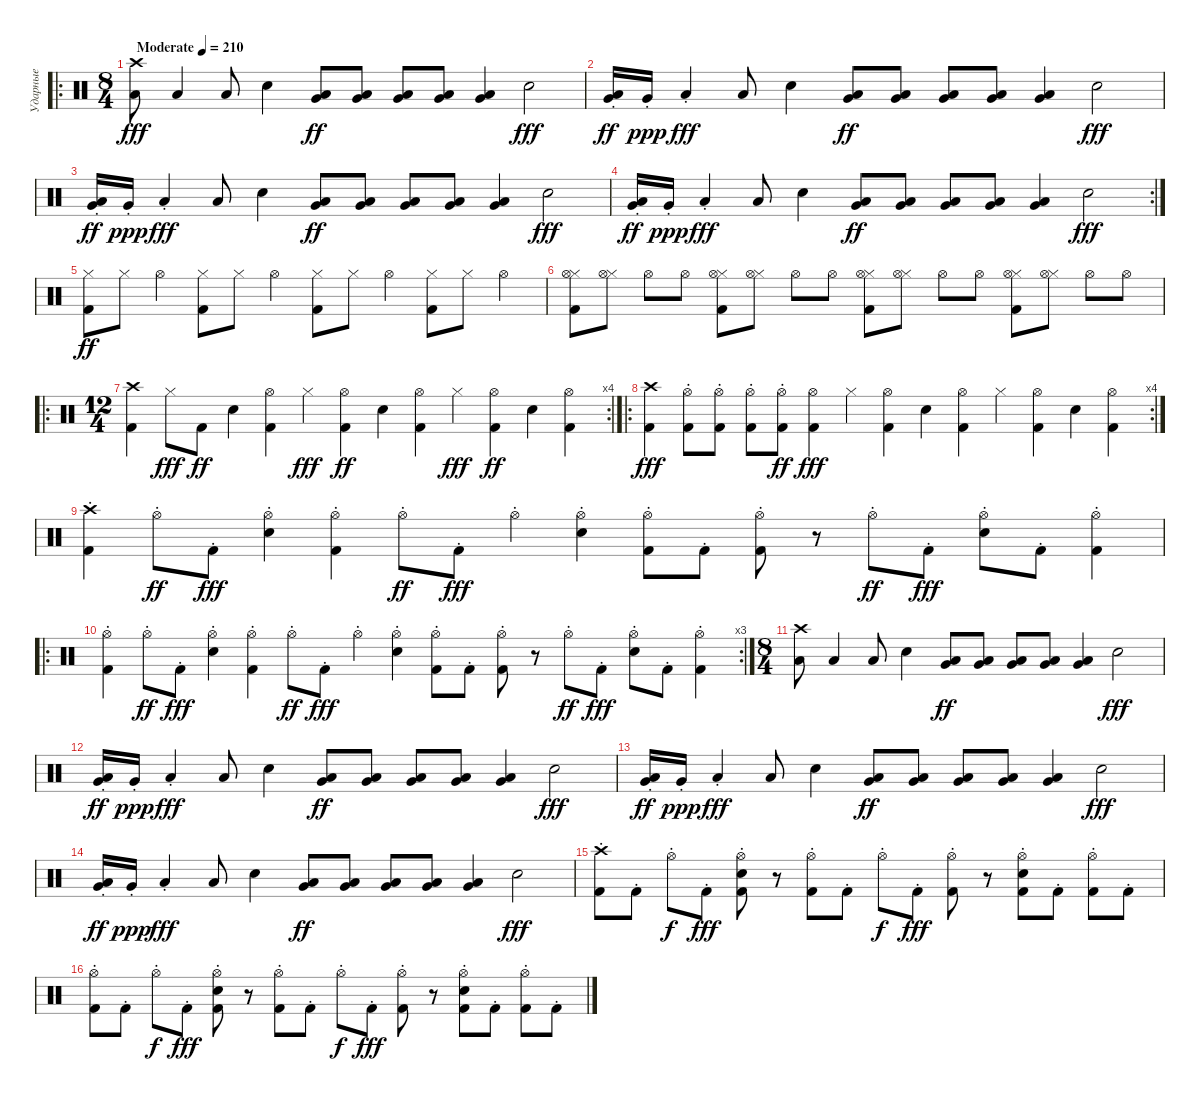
\track ("Ударные" "Ударные") {instrument percussion}
\staff {score}
\articulation defaults
\ro
\ts (8 4)
\tempo (210 "Moderate")
\clef neutral
\ks c
("Crash high (hit)" "Low Floor Tom (hit)").8{dy fff} "Low Floor Tom (hit)".4 "Low Floor Tom (hit)".8 "Electric Snare (hit)".4 ("Low Floor Tom (hit)" "Very Low Tom (hit)").8{bd 120 dy ff} ("Low Floor Tom (hit)" "Very Low Tom (hit)").8{bd 120} ("Low Floor Tom (hit)" "Very Low Tom (hit)").8{bd 120} ("Low Floor Tom (hit)" "Very Low Tom (hit)").8{bd 120} ("Low Floor Tom (hit)" "Very Low Tom (hit)").4{bd 120} "Electric Snare (hit)".2{dy fff} |
("Low Floor Tom (hit)"{st} "Very Low Tom (hit)"{st}).16{bd 120 dy ff} "Very Low Tom (hit)"{st}.16{dy ppp} "Low Floor Tom (hit)"{st}.4{dy fff} "Low Floor Tom (hit)".8 "Electric Snare (hit)".4 ("Low Floor Tom (hit)" "Very Low Tom (hit)").8{bd 120 dy ff} ("Low Floor Tom (hit)" "Very Low Tom (hit)").8{bd 120} ("Low Floor Tom (hit)" "Very Low Tom (hit)").8{bd 120} ("Low Floor Tom (hit)" "Very Low Tom (hit)").8{bd 120} ("Low Floor Tom (hit)" "Very Low Tom (hit)").4{bd 120} "Electric Snare (hit)".2{dy fff} |
("Low Floor Tom (hit)"{st} "Very Low Tom (hit)"{st}).16{bd 120 dy ff} "Very Low Tom (hit)"{st}.16{dy ppp} "Low Floor Tom (hit)"{st}.4{dy fff} "Low Floor Tom (hit)".8 "Electric Snare (hit)".4 ("Low Floor Tom (hit)" "Very Low Tom (hit)").8{bd 120 dy ff} ("Low Floor Tom (hit)" "Very Low Tom (hit)").8{bd 120} ("Low Floor Tom (hit)" "Very Low Tom (hit)").8{bd 120} ("Low Floor Tom (hit)" "Very Low Tom (hit)").8{bd 120} ("Low Floor Tom (hit)" "Very Low Tom (hit)").4{bd 120} "Electric Snare (hit)".2{dy fff} |
\rc 2
("Low Floor Tom (hit)"{st} "Very Low Tom (hit)"{st}).16{bd 120 dy ff} "Very Low Tom (hit)"{st}.16{dy ppp} "Low Floor Tom (hit)"{st}.4{dy fff} "Low Floor Tom (hit)".8 "Electric Snare (hit)".4 ("Low Floor Tom (hit)" "Very Low Tom (hit)").8{bd 120 dy ff} ("Low Floor Tom (hit)" "Very Low Tom (hit)").8{bd 120} ("Low Floor Tom (hit)" "Very Low Tom (hit)").8{bd 120} ("Low Floor Tom (hit)" "Very Low Tom (hit)").8{bd 120} ("Low Floor Tom (hit)" "Very Low Tom (hit)").4{bd 120} "Electric Snare (hit)".2{dy fff} |
("Hi-Hat (closed)" "Kick (hit) 2").8{dy ff} "Hi-Hat (closed)".8 "Hi-Hat (open)".4 ("Hi-Hat (closed)" "Kick (hit) 2").8 "Hi-Hat (closed)".8 "Hi-Hat (open)".4 ("Hi-Hat (closed)" "Kick (hit) 2").8 "Hi-Hat (closed)".8 "Hi-Hat (open)".4 ("Hi-Hat (closed)" "Kick (hit) 2").8 "Hi-Hat (closed)".8 "Hi-Hat (open)".4 |
("Hi-Hat (closed)" "Kick (hit) 2" "Hi-Hat (open)").8 ("Hi-Hat (closed)" "Hi-Hat (open)").8 "Hi-Hat (open)".8 "Hi-Hat (open)".8 ("Hi-Hat (closed)" "Kick (hit) 2" "Hi-Hat (open)").8 ("Hi-Hat (closed)" "Hi-Hat (open)").8 "Hi-Hat (open)".8 "Hi-Hat (open)".8 ("Hi-Hat (closed)" "Kick (hit) 2" "Hi-Hat (open)").8 ("Hi-Hat (closed)" "Hi-Hat (open)").8 "Hi-Hat (open)".8 "Hi-Hat (open)".8 ("Hi-Hat (closed)" "Kick (hit) 2" "Hi-Hat (open)").8 ("Hi-Hat (closed)" "Hi-Hat (open)").8 "Hi-Hat (open)".8 "Hi-Hat (open)".8 |
\ro
\rc 4
\ts (12 4)
("Crash high (hit)" "Kick (hit) 2").4 "Hi-Hat (closed)".8{dy fff} "Kick (hit) 2".8{dy ff} "Electric Snare (hit)".4 ("Hi-Hat (open)" "Kick (hit) 2").4 "Hi-Hat (closed)".4{dy fff} ("Hi-Hat (open)" "Kick (hit) 2").4{dy ff} "Electric Snare (hit)".4 ("Hi-Hat (open)" "Kick (hit) 2").4 "Hi-Hat (closed)".4{dy fff} ("Hi-Hat (open)" "Kick (hit) 2").4{dy ff} "Electric Snare (hit)".4 ("Hi-Hat (open)" "Kick (hit) 2").4 |
\ro
\rc 4
("Crash high (hit)" "Kick (hit) 2").4{dy fff} ("Hi-Hat (open)"{st} "Kick (hit) 2"{st}).8 ("Hi-Hat (open)"{st} "Kick (hit) 2"{st}).8 ("Hi-Hat (open)"{st} "Kick (hit) 2"{st}).8 ("Kick (hit) 2"{st} "Hi-Hat (open)"{st}).8{dy ff} ("Hi-Hat (open)" "Kick (hit) 2").4{dy fff} "Hi-Hat (closed)".4 ("Hi-Hat (open)" "Kick (hit) 2").4 "Electric Snare (hit)".4 ("Hi-Hat (open)" "Kick (hit) 2").4 "Hi-Hat (closed)".4 ("Hi-Hat (open)" "Kick (hit) 2").4 "Electric Snare (hit)".4 ("Hi-Hat (open)" "Kick (hit) 2").4 |
("Crash high (hit)"{st} "Kick (hit) 2"{st}).4 "Hi-Hat (open)"{st}.8{dy ff} "Kick (hit) 2"{st}.8{dy fff} ("Hi-Hat (open)"{st} "Electric Snare (hit)"{st}).4 ("Hi-Hat (open)"{st} "Kick (hit) 2"{st}).4 "Hi-Hat (open)"{st}.8{dy ff} "Kick (hit) 2"{st}.8{dy fff} "Hi-Hat (open)"{st}.4 ("Hi-Hat (open)"{st} "Electric Snare (hit)"{st}).4 ("Hi-Hat (open)"{st} "Kick (hit) 2"{st}).8 "Kick (hit) 2"{st}.8 ("Hi-Hat (open)"{st} "Kick (hit) 2"{st}).8 r.8 "Hi-Hat (open)"{st}.8{dy ff} "Kick (hit) 2"{st}.8{dy fff} ("Hi-Hat (open)"{st} "Electric Snare (hit)"{st}).8 "Kick (hit) 2"{st}.8 ("Hi-Hat (open)"{st} "Kick (hit) 2"{st}).4 |
\ro
\rc 3
("Hi-Hat (open)"{st} "Kick (hit) 2"{st}).4 "Hi-Hat (open)"{st}.8{dy ff} "Kick (hit) 2"{st}.8{dy fff} ("Hi-Hat (open)"{st} "Electric Snare (hit)"{st}).4 ("Hi-Hat (open)"{st} "Kick (hit) 2"{st}).4 "Hi-Hat (open)"{st}.8{dy ff} "Kick (hit) 2"{st}.8{dy fff} "Hi-Hat (open)"{st}.4 ("Hi-Hat (open)"{st} "Electric Snare (hit)"{st}).4 ("Hi-Hat (open)"{st} "Kick (hit) 2"{st}).8 "Kick (hit) 2"{st}.8 ("Hi-Hat (open)"{st} "Kick (hit) 2"{st}).8 r.8 "Hi-Hat (open)"{st}.8{dy ff} "Kick (hit) 2"{st}.8{dy fff} ("Hi-Hat (open)"{st} "Electric Snare (hit)"{st}).8 "Kick (hit) 2"{st}.8 ("Hi-Hat (open)"{st} "Kick (hit) 2"{st}).4 |
\ts (8 4)
("Crash high (hit)" "Low Floor Tom (hit)").8 "Low Floor Tom (hit)".4 "Low Floor Tom (hit)".8 "Electric Snare (hit)".4 ("Low Floor Tom (hit)" "Very Low Tom (hit)").8{bd 120 dy ff} ("Low Floor Tom (hit)" "Very Low Tom (hit)").8{bd 120} ("Low Floor Tom (hit)" "Very Low Tom (hit)").8{bd 120} ("Low Floor Tom (hit)" "Very Low Tom (hit)").8{bd 120} ("Low Floor Tom (hit)" "Very Low Tom (hit)").4{bd 120} "Electric Snare (hit)".2{dy fff} |
("Low Floor Tom (hit)"{st} "Very Low Tom (hit)"{st}).16{bd 120 dy ff} "Very Low Tom (hit)"{st}.16{dy ppp} "Low Floor Tom (hit)"{st}.4{dy fff} "Low Floor Tom (hit)".8 "Electric Snare (hit)".4 ("Low Floor Tom (hit)" "Very Low Tom (hit)").8{bd 120 dy ff} ("Low Floor Tom (hit)" "Very Low Tom (hit)").8{bd 120} ("Low Floor Tom (hit)" "Very Low Tom (hit)").8{bd 120} ("Low Floor Tom (hit)" "Very Low Tom (hit)").8{bd 120} ("Low Floor Tom (hit)" "Very Low Tom (hit)").4{bd 120} "Electric Snare (hit)".2{dy fff} |
("Low Floor Tom (hit)"{st} "Very Low Tom (hit)"{st}).16{bd 120 dy ff} "Very Low Tom (hit)"{st}.16{dy ppp} "Low Floor Tom (hit)"{st}.4{dy fff} "Low Floor Tom (hit)".8 "Electric Snare (hit)".4 ("Low Floor Tom (hit)" "Very Low Tom (hit)").8{bd 120 dy ff} ("Low Floor Tom (hit)" "Very Low Tom (hit)").8{bd 120} ("Low Floor Tom (hit)" "Very Low Tom (hit)").8{bd 120} ("Low Floor Tom (hit)" "Very Low Tom (hit)").8{bd 120} ("Low Floor Tom (hit)" "Very Low Tom (hit)").4{bd 120} "Electric Snare (hit)".2{dy fff} |
("Low Floor Tom (hit)"{st} "Very Low Tom (hit)"{st}).16{bd 120 dy ff} "Very Low Tom (hit)"{st}.16{dy ppp} "Low Floor Tom (hit)"{st}.4{dy fff} "Low Floor Tom (hit)".8 "Electric Snare (hit)".4 ("Low Floor Tom (hit)" "Very Low Tom (hit)").8{bd 120 dy ff} ("Low Floor Tom (hit)" "Very Low Tom (hit)").8{bd 120} ("Low Floor Tom (hit)" "Very Low Tom (hit)").8{bd 120} ("Low Floor Tom (hit)" "Very Low Tom (hit)").8{bd 120} ("Low Floor Tom (hit)" "Very Low Tom (hit)").4{bd 120} "Electric Snare (hit)".2{dy fff} |
("Kick (hit) 2"{st} "Crash high (hit)"{st}).8 "Kick (hit) 2"{st}.8 "Hi-Hat (open)"{st}.8{dy f} "Kick (hit) 2"{st}.8{dy fff} ("Kick (hit) 2"{st} "Hi-Hat (open)"{st} "Electric Snare (hit)"{st}).8 r.8 ("Kick (hit) 2"{st} "Hi-Hat (open)"{st}).8 "Kick (hit) 2"{st}.8 "Hi-Hat (open)"{st}.8{dy f} "Kick (hit) 2"{st}.8{dy fff} ("Kick (hit) 2"{st} "Hi-Hat (open)"{st}).8 r.8 ("Kick (hit) 2"{st} "Hi-Hat (open)"{st} "Electric Snare (hit)"{st}).8 "Kick (hit) 2"{st}.8 ("Kick (hit) 2"{st} "Hi-Hat (open)"{st}).8 "Kick (hit) 2"{st}.8 |
("Kick (hit) 2"{st} "Hi-Hat (open)"{st}).8 "Kick (hit) 2"{st}.8 "Hi-Hat (open)"{st}.8{dy f} "Kick (hit) 2"{st}.8{dy fff} ("Kick (hit) 2"{st} "Hi-Hat (open)"{st} "Electric Snare (hit)"{st}).8 r.8 ("Kick (hit) 2"{st} "Hi-Hat (open)"{st}).8 "Kick (hit) 2"{st}.8 "Hi-Hat (open)"{st}.8{dy f} "Kick (hit) 2"{st}.8{dy fff} ("Kick (hit) 2"{st} "Hi-Hat (open)"{st}).8 r.8 ("Kick (hit) 2"{st} "Hi-Hat (open)"{st} "Electric Snare (hit)"{st}).8 "Kick (hit) 2"{st}.8 ("Kick (hit) 2"{st} "Hi-Hat (open)"{st}).8 "Kick (hit) 2"{st}.8
